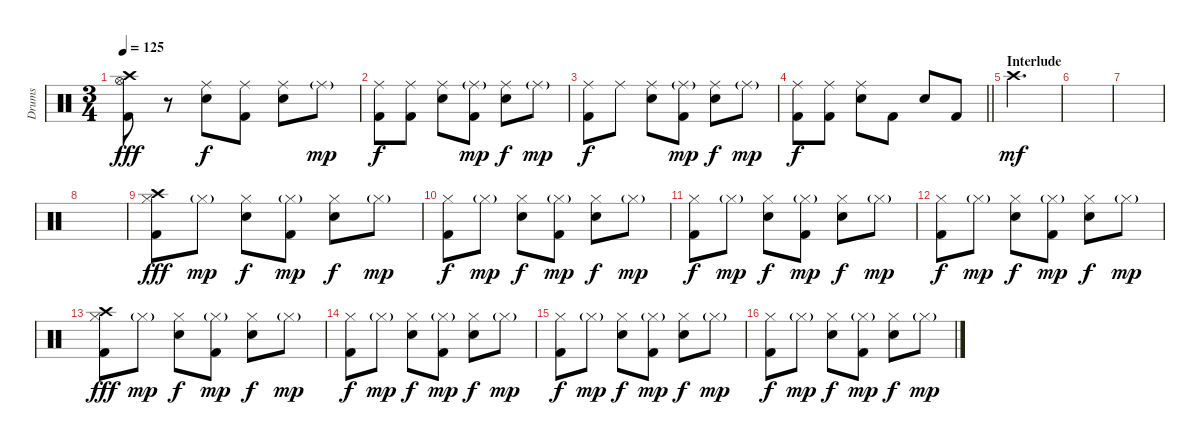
\track ("Drums" "Drums") {instrument percussion}
\staff {score}
\articulation defaults
\ts (3 4)
\tempo 125
\clef neutral
\ks c
("Crash high (hit)" "Hi-Hat (open)" "Kick (hit) 2").8{dy fff} r.8 ("Ride (middle)" "Electric Snare (hit)").8{dy f} ("Ride (middle)" "Kick (hit) 2").8 ("Ride (middle)" "Electric Snare (hit)").8 "Ride (middle)"{g}.8{dy mp} |
("Ride (middle)" "Kick (hit) 2").8{dy f} ("Ride (middle)" "Kick (hit) 2").8 ("Ride (middle)" "Electric Snare (hit)").8 ("Ride (middle)"{g} "Kick (hit) 2").8{dy mp} ("Ride (middle)" "Electric Snare (hit)").8{dy f} "Ride (middle)"{g}.8{dy mp} |
("Ride (middle)" "Kick (hit) 2").8{dy f} "Ride (middle)".8 ("Ride (middle)" "Electric Snare (hit)").8 ("Ride (middle)"{g} "Kick (hit) 2").8{dy mp} ("Ride (middle)" "Electric Snare (hit)").8{dy f} "Ride (middle)"{g}.8{dy mp} |
\barLineRight lightlight
("Ride (middle)" "Kick (hit) 2").8{dy f} ("Ride (middle)" "Kick (hit) 2").8 ("Ride (middle)" "Electric Snare (hit)").8 "Kick (hit) 2".8 "Electric Snare (hit)".8 "Kick (hit) 2".8 |
\section ("" "Interlude")
"Crash high (hit)".2{d dy mf} |
|
|
|
("Crash high (hit)" "Hi-Hat (closed)" "Kick (hit) 2").8{dy fff} "Hi-Hat (closed)"{g}.8{dy mp} ("Hi-Hat (closed)" "Electric Snare (hit)").8{dy f} ("Hi-Hat (closed)"{g} "Kick (hit) 2").8{dy mp} ("Hi-Hat (closed)" "Electric Snare (hit)").8{dy f} "Hi-Hat (closed)"{g}.8{dy mp} |
("Hi-Hat (closed)" "Kick (hit) 2").8{dy f} "Hi-Hat (closed)"{g}.8{dy mp} ("Hi-Hat (closed)" "Electric Snare (hit)").8{dy f} ("Hi-Hat (closed)"{g} "Kick (hit) 2").8{dy mp} ("Hi-Hat (closed)" "Electric Snare (hit)").8{dy f} "Hi-Hat (closed)"{g}.8{dy mp} |
("Hi-Hat (closed)" "Kick (hit) 2").8{dy f} "Hi-Hat (closed)"{g}.8{dy mp} ("Hi-Hat (closed)" "Electric Snare (hit)").8{dy f} ("Hi-Hat (closed)"{g} "Kick (hit) 2").8{dy mp} ("Hi-Hat (closed)" "Electric Snare (hit)").8{dy f} "Hi-Hat (closed)"{g}.8{dy mp} |
("Hi-Hat (closed)" "Kick (hit) 2").8{dy f} "Hi-Hat (closed)"{g}.8{dy mp} ("Hi-Hat (closed)" "Electric Snare (hit)").8{dy f} ("Hi-Hat (closed)"{g} "Kick (hit) 2").8{dy mp} ("Hi-Hat (closed)" "Electric Snare (hit)").8{dy f} "Hi-Hat (closed)"{g}.8{dy mp} |
("Crash high (hit)" "Hi-Hat (closed)" "Kick (hit) 2").8{dy fff} "Hi-Hat (closed)"{g}.8{dy mp} ("Hi-Hat (closed)" "Electric Snare (hit)").8{dy f} ("Hi-Hat (closed)"{g} "Kick (hit) 2").8{dy mp} ("Hi-Hat (closed)" "Electric Snare (hit)").8{dy f} "Hi-Hat (closed)"{g}.8{dy mp} |
("Hi-Hat (closed)" "Kick (hit) 2").8{dy f} "Hi-Hat (closed)"{g}.8{dy mp} ("Hi-Hat (closed)" "Electric Snare (hit)").8{dy f} ("Hi-Hat (closed)"{g} "Kick (hit) 2").8{dy mp} ("Hi-Hat (closed)" "Electric Snare (hit)").8{dy f} "Hi-Hat (closed)"{g}.8{dy mp} |
("Hi-Hat (closed)" "Kick (hit) 2").8{dy f} "Hi-Hat (closed)"{g}.8{dy mp} ("Hi-Hat (closed)" "Electric Snare (hit)").8{dy f} ("Hi-Hat (closed)"{g} "Kick (hit) 2").8{dy mp} ("Hi-Hat (closed)" "Electric Snare (hit)").8{dy f} "Hi-Hat (closed)"{g}.8{dy mp} |
("Hi-Hat (closed)" "Kick (hit) 2").8{dy f} "Hi-Hat (closed)"{g}.8{dy mp} ("Hi-Hat (closed)" "Electric Snare (hit)").8{dy f} ("Hi-Hat (closed)"{g} "Kick (hit) 2").8{dy mp} ("Hi-Hat (closed)" "Electric Snare (hit)").8{dy f} "Hi-Hat (closed)"{g}.8{dy mp}
